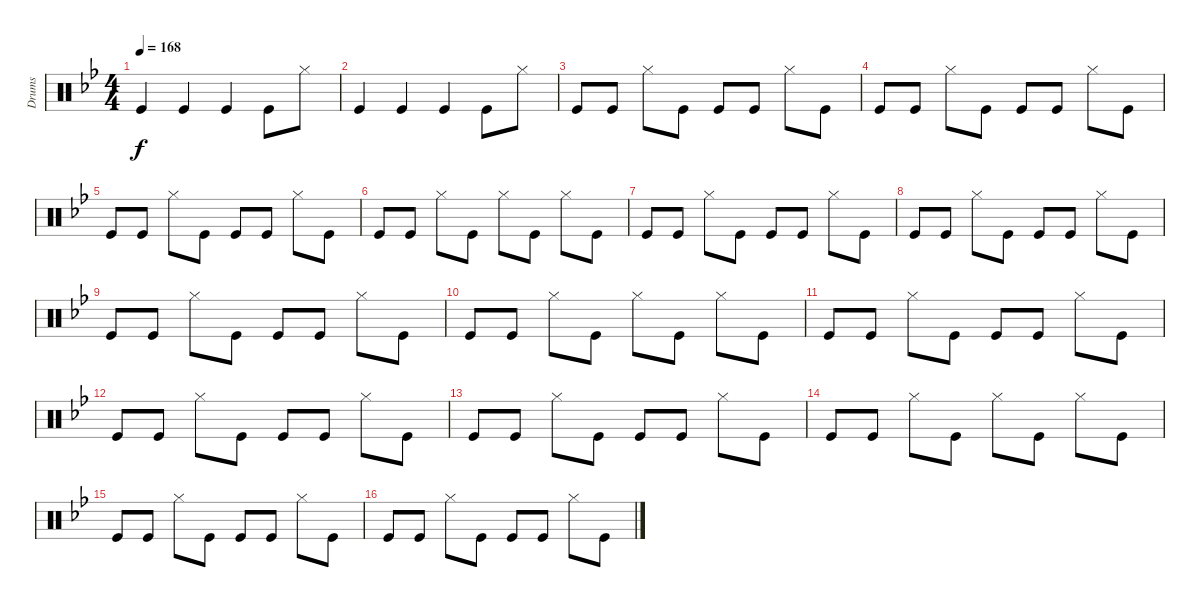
\track ("Drums" "Drums") {instrument percussion}
\staff {score}
\articulation defaults
\ts (4 4)
\tempo 168
\clef neutral
\ks bb "Kick (hit)".4{dy f} "Kick (hit)".4 "Kick (hit)".4 "Kick (hit)".8 "Hi-Hat (closed)".8
|
"Kick (hit)".4 "Kick (hit)".4 "Kick (hit)".4 "Kick (hit)".8 "Hi-Hat (closed)".8 |
"Kick (hit)".8 "Kick (hit)".8 "Hi-Hat (closed)".8 "Kick (hit)".8 "Kick (hit)".8 "Kick (hit)".8 "Hi-Hat (closed)".8 "Kick (hit)".8 |
"Kick (hit)".8 "Kick (hit)".8 "Hi-Hat (closed)".8 "Kick (hit)".8 "Kick (hit)".8 "Kick (hit)".8 "Hi-Hat (closed)".8 "Kick (hit)".8 |
"Kick (hit)".8 "Kick (hit)".8 "Hi-Hat (closed)".8 "Kick (hit)".8 "Kick (hit)".8 "Kick (hit)".8 "Hi-Hat (closed)".8 "Kick (hit)".8 |
"Kick (hit)".8 "Kick (hit)".8 "Hi-Hat (closed)".8 "Kick (hit)".8 "Hi-Hat (closed)".8 "Kick (hit)".8 "Hi-Hat (closed)".8 "Kick (hit)".8 |
"Kick (hit)".8 "Kick (hit)".8 "Hi-Hat (closed)".8 "Kick (hit)".8 "Kick (hit)".8 "Kick (hit)".8 "Hi-Hat (closed)".8 "Kick (hit)".8 |
"Kick (hit)".8 "Kick (hit)".8 "Hi-Hat (closed)".8 "Kick (hit)".8 "Kick (hit)".8 "Kick (hit)".8 "Hi-Hat (closed)".8 "Kick (hit)".8 |
"Kick (hit)".8 "Kick (hit)".8 "Hi-Hat (closed)".8 "Kick (hit)".8 "Kick (hit)".8 "Kick (hit)".8 "Hi-Hat (closed)".8 "Kick (hit)".8 |
"Kick (hit)".8 "Kick (hit)".8 "Hi-Hat (closed)".8 "Kick (hit)".8 "Hi-Hat (closed)".8 "Kick (hit)".8 "Hi-Hat (closed)".8 "Kick (hit)".8 |
"Kick (hit)".8 "Kick (hit)".8 "Hi-Hat (closed)".8 "Kick (hit)".8 "Kick (hit)".8 "Kick (hit)".8 "Hi-Hat (closed)".8 "Kick (hit)".8 |
"Kick (hit)".8 "Kick (hit)".8 "Hi-Hat (closed)".8 "Kick (hit)".8 "Kick (hit)".8 "Kick (hit)".8 "Hi-Hat (closed)".8 "Kick (hit)".8 |
"Kick (hit)".8 "Kick (hit)".8 "Hi-Hat (closed)".8 "Kick (hit)".8 "Kick (hit)".8 "Kick (hit)".8 "Hi-Hat (closed)".8 "Kick (hit)".8 |
"Kick (hit)".8 "Kick (hit)".8 "Hi-Hat (closed)".8 "Kick (hit)".8 "Hi-Hat (closed)".8 "Kick (hit)".8 "Hi-Hat (closed)".8 "Kick (hit)".8 |
"Kick (hit)".8 "Kick (hit)".8 "Hi-Hat (closed)".8 "Kick (hit)".8 "Kick (hit)".8 "Kick (hit)".8 "Hi-Hat (closed)".8 "Kick (hit)".8 |
"Kick (hit)".8 "Kick (hit)".8 "Hi-Hat (closed)".8 "Kick (hit)".8 "Kick (hit)".8 "Kick (hit)".8 "Hi-Hat (closed)".8 "Kick (hit)".8
